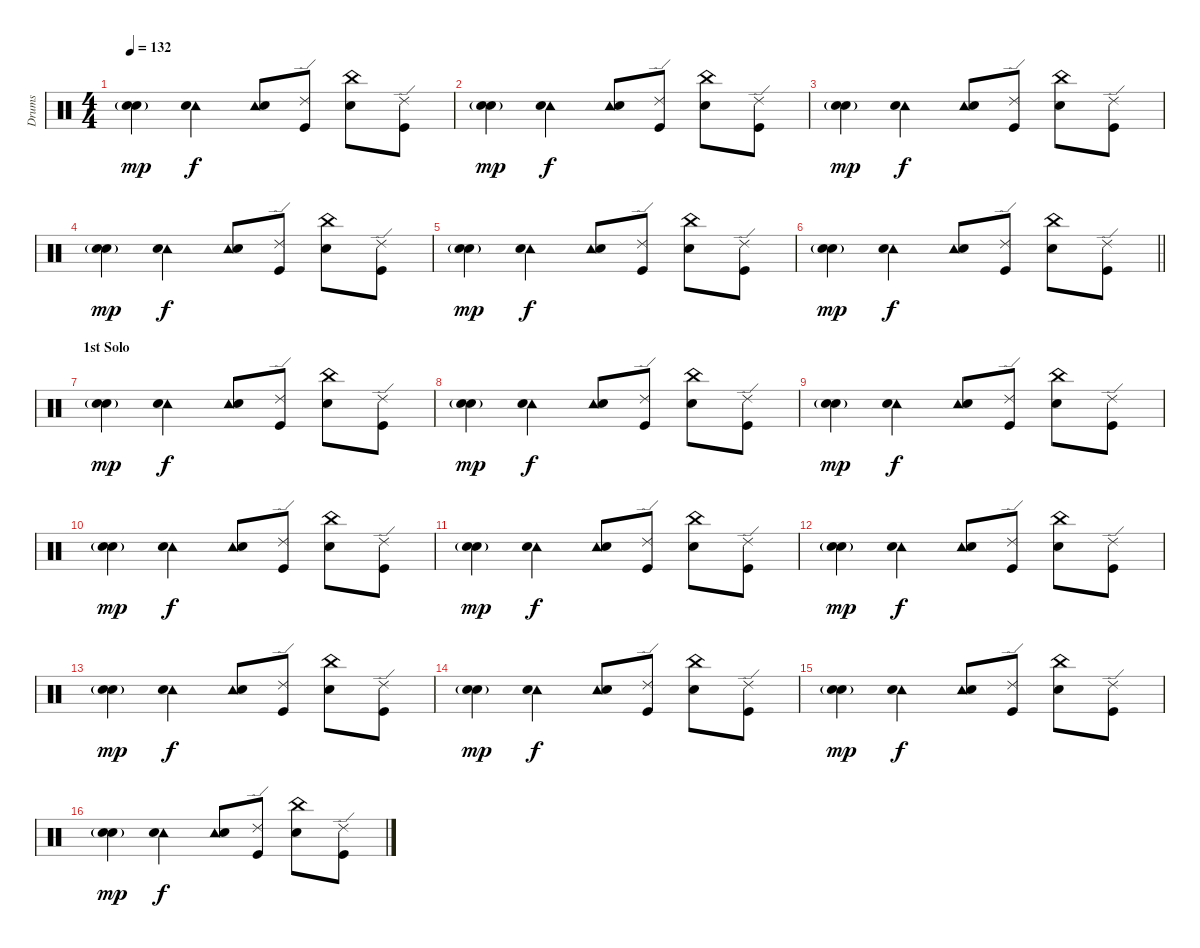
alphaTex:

\track ("Drums" "Drums") {instrument percussion}
\staff {score}
\articulation defaults
\ts (4 4)
\tempo 132
\clef neutral
\ks c
("Snare (hit) 2" "Electric Snare (hit)"{g}).4{dy mp} ("Tambourine (hit)" "Snare (hit) 2").4{dy f} ("Tambourine (hit)" "Snare (hit) 2").8 ("Ride (edge) 2" "Kick (hit)").8 ("China (hit)" "Snare (hit) 2").8 ("Ride (edge) 2" "Kick (hit)").8 |
("Snare (hit) 2" "Electric Snare (hit)"{g}).4{dy mp} ("Tambourine (hit)" "Snare (hit) 2").4{dy f} ("Tambourine (hit)" "Snare (hit) 2").8 ("Ride (edge) 2" "Kick (hit)").8 ("China (hit)" "Snare (hit) 2").8 ("Ride (edge) 2" "Kick (hit)").8 |
("Snare (hit) 2" "Electric Snare (hit)"{g}).4{dy mp} ("Tambourine (hit)" "Snare (hit) 2").4{dy f} ("Tambourine (hit)" "Snare (hit) 2").8 ("Ride (edge) 2" "Kick (hit)").8 ("China (hit)" "Snare (hit) 2").8 ("Ride (edge) 2" "Kick (hit)").8 |
("Snare (hit) 2" "Electric Snare (hit)"{g}).4{dy mp} ("Tambourine (hit)" "Snare (hit) 2").4{dy f} ("Tambourine (hit)" "Snare (hit) 2").8 ("Ride (edge) 2" "Kick (hit)").8 ("China (hit)" "Snare (hit) 2").8 ("Ride (edge) 2" "Kick (hit)").8 |
("Snare (hit) 2" "Electric Snare (hit)"{g}).4{dy mp} ("Tambourine (hit)" "Snare (hit) 2").4{dy f} ("Tambourine (hit)" "Snare (hit) 2").8 ("Ride (edge) 2" "Kick (hit)").8 ("China (hit)" "Snare (hit) 2").8 ("Ride (edge) 2" "Kick (hit)").8 |
\barLineRight lightlight
("Snare (hit) 2" "Electric Snare (hit)"{g}).4{dy mp} ("Tambourine (hit)" "Snare (hit) 2").4{dy f} ("Tambourine (hit)" "Snare (hit) 2").8 ("Ride (edge) 2" "Kick (hit)").8 ("China (hit)" "Snare (hit) 2").8 ("Ride (edge) 2" "Kick (hit)").8 |
\section ("" "1st Solo")
("Snare (hit) 2" "Electric Snare (hit)"{g}).4{dy mp} ("Tambourine (hit)" "Snare (hit) 2").4{dy f} ("Tambourine (hit)" "Snare (hit) 2").8 ("Ride (edge) 2" "Kick (hit)").8 ("China (hit)" "Snare (hit) 2").8 ("Ride (edge) 2" "Kick (hit)").8 |
("Snare (hit) 2" "Electric Snare (hit)"{g}).4{dy mp} ("Tambourine (hit)" "Snare (hit) 2").4{dy f} ("Tambourine (hit)" "Snare (hit) 2").8 ("Ride (edge) 2" "Kick (hit)").8 ("China (hit)" "Snare (hit) 2").8 ("Ride (edge) 2" "Kick (hit)").8 |
("Snare (hit) 2" "Electric Snare (hit)"{g}).4{dy mp} ("Tambourine (hit)" "Snare (hit) 2").4{dy f} ("Tambourine (hit)" "Snare (hit) 2").8 ("Ride (edge) 2" "Kick (hit)").8 ("China (hit)" "Snare (hit) 2").8 ("Ride (edge) 2" "Kick (hit)").8 |
("Snare (hit) 2" "Electric Snare (hit)"{g}).4{dy mp} ("Tambourine (hit)" "Snare (hit) 2").4{dy f} ("Tambourine (hit)" "Snare (hit) 2").8 ("Ride (edge) 2" "Kick (hit)").8 ("China (hit)" "Snare (hit) 2").8 ("Ride (edge) 2" "Kick (hit)").8 |
("Snare (hit) 2" "Electric Snare (hit)"{g}).4{dy mp} ("Tambourine (hit)" "Snare (hit) 2").4{dy f} ("Tambourine (hit)" "Snare (hit) 2").8 ("Ride (edge) 2" "Kick (hit)").8 ("China (hit)" "Snare (hit) 2").8 ("Ride (edge) 2" "Kick (hit)").8 |
("Snare (hit) 2" "Electric Snare (hit)"{g}).4{dy mp} ("Tambourine (hit)" "Snare (hit) 2").4{dy f} ("Tambourine (hit)" "Snare (hit) 2").8 ("Ride (edge) 2" "Kick (hit)").8 ("China (hit)" "Snare (hit) 2").8 ("Ride (edge) 2" "Kick (hit)").8 |
("Snare (hit) 2" "Electric Snare (hit)"{g}).4{dy mp} ("Tambourine (hit)" "Snare (hit) 2").4{dy f} ("Tambourine (hit)" "Snare (hit) 2").8 ("Ride (edge) 2" "Kick (hit)").8 ("China (hit)" "Snare (hit) 2").8 ("Ride (edge) 2" "Kick (hit)").8 |
("Snare (hit) 2" "Electric Snare (hit)"{g}).4{dy mp} ("Tambourine (hit)" "Snare (hit) 2").4{dy f} ("Tambourine (hit)" "Snare (hit) 2").8 ("Ride (edge) 2" "Kick (hit)").8 ("China (hit)" "Snare (hit) 2").8 ("Ride (edge) 2" "Kick (hit)").8 |
("Snare (hit) 2" "Electric Snare (hit)"{g}).4{dy mp} ("Tambourine (hit)" "Snare (hit) 2").4{dy f} ("Tambourine (hit)" "Snare (hit) 2").8 ("Ride (edge) 2" "Kick (hit)").8 ("China (hit)" "Snare (hit) 2").8 ("Ride (edge) 2" "Kick (hit)").8 |
("Snare (hit) 2" "Electric Snare (hit)"{g}).4{dy mp} ("Tambourine (hit)" "Snare (hit) 2").4{dy f} ("Tambourine (hit)" "Snare (hit) 2").8 ("Ride (edge) 2" "Kick (hit)").8 ("China (hit)" "Snare (hit) 2").8 ("Ride (edge) 2" "Kick (hit)").8
